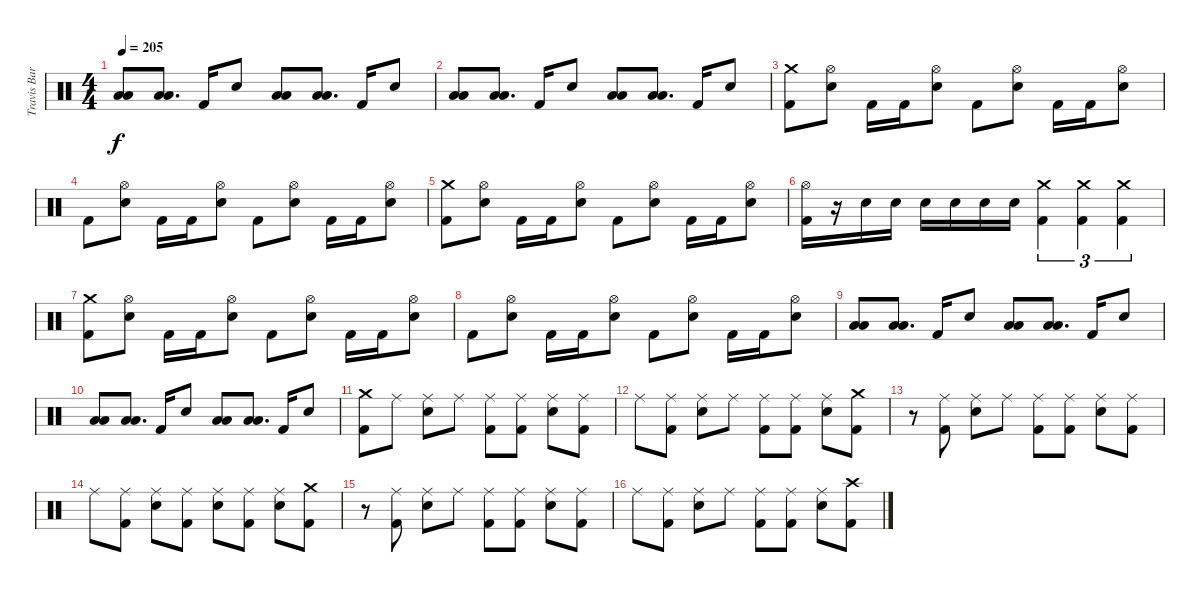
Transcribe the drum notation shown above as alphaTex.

\track ("Travis Barker (Drums)" "Travis Bar") {instrument percussion}
\staff {score}
\articulation defaults
\ts (4 4)
\tempo 205
\clef neutral
\ks c
("Low Tom (hit)" "Low Tom (hit)").8{dy f} ("Low Floor Tom (hit)" "Low Floor Tom (hit)").8{d} "Kick (hit) 2".16 "Electric Snare (hit)".8 ("Low Tom (hit)" "Low Tom (hit)").8 ("Low Floor Tom (hit)" "Low Floor Tom (hit)").8{d} "Kick (hit) 2".16 "Electric Snare (hit)".8 |
("Low Tom (hit)" "Low Tom (hit)").8 ("Low Floor Tom (hit)" "Low Floor Tom (hit)").8{d} "Kick (hit) 2".16 "Electric Snare (hit)".8 ("Low Tom (hit)" "Low Tom (hit)").8 ("Low Floor Tom (hit)" "Low Floor Tom (hit)").8{d} "Kick (hit) 2".16 "Electric Snare (hit)".8 |
("Crash medium (hit)" "Kick (hit) 2").8 ("Hi-Hat (open)" "Electric Snare (hit)").8 "Kick (hit) 2".16 "Kick (hit) 2".16 ("Hi-Hat (open)" "Electric Snare (hit)").8 "Kick (hit) 2".8 ("Hi-Hat (open)" "Electric Snare (hit)").8 "Kick (hit) 2".16 "Kick (hit) 2".16 ("Hi-Hat (open)" "Electric Snare (hit)").8 |
"Kick (hit) 2".8 ("Hi-Hat (open)" "Electric Snare (hit)").8 "Kick (hit) 2".16 "Kick (hit) 2".16 ("Hi-Hat (open)" "Electric Snare (hit)").8 "Kick (hit) 2".8 ("Hi-Hat (open)" "Electric Snare (hit)").8 "Kick (hit) 2".16 "Kick (hit) 2".16 ("Hi-Hat (open)" "Electric Snare (hit)").8 |
("Crash medium (hit)" "Kick (hit) 2").8 ("Hi-Hat (open)" "Electric Snare (hit)").8 "Kick (hit) 2".16 "Kick (hit) 2".16 ("Hi-Hat (open)" "Electric Snare (hit)").8 "Kick (hit) 2".8 ("Hi-Hat (open)" "Electric Snare (hit)").8 "Kick (hit) 2".16 "Kick (hit) 2".16 ("Hi-Hat (open)" "Electric Snare (hit)").8 |
("Hi-Hat (open)" "Kick (hit) 2").16 r.16 "Electric Snare (hit)".16 "Electric Snare (hit)".16 "Electric Snare (hit)".16 "Electric Snare (hit)".16 "Electric Snare (hit)".16 "Electric Snare (hit)".16 ("Crash medium (hit)" "Kick (hit) 2").4{tu (3 2)} ("Crash medium (hit)" "Kick (hit) 2").4{tu (3 2)} ("Crash medium (hit)" "Kick (hit) 2").4{tu (3 2)} |
("Crash medium (hit)" "Kick (hit) 2").8 ("Hi-Hat (open)" "Electric Snare (hit)").8 "Kick (hit) 2".16 "Kick (hit) 2".16 ("Hi-Hat (open)" "Electric Snare (hit)").8 "Kick (hit) 2".8 ("Hi-Hat (open)" "Electric Snare (hit)").8 "Kick (hit) 2".16 "Kick (hit) 2".16 ("Hi-Hat (open)" "Electric Snare (hit)").8 |
"Kick (hit) 2".8 ("Hi-Hat (open)" "Electric Snare (hit)").8 "Kick (hit) 2".16 "Kick (hit) 2".16 ("Hi-Hat (open)" "Electric Snare (hit)").8 "Kick (hit) 2".8 ("Hi-Hat (open)" "Electric Snare (hit)").8 "Kick (hit) 2".16 "Kick (hit) 2".16 ("Hi-Hat (open)" "Electric Snare (hit)").8 |
("Low Tom (hit)" "Low Tom (hit)").8 ("Low Floor Tom (hit)" "Low Floor Tom (hit)").8{d} "Kick (hit) 2".16 "Electric Snare (hit)".8 ("Low Tom (hit)" "Low Tom (hit)").8 ("Low Floor Tom (hit)" "Low Floor Tom (hit)").8{d} "Kick (hit) 2".16 "Electric Snare (hit)".8 |
("Low Tom (hit)" "Low Tom (hit)").8 ("Low Floor Tom (hit)" "Low Floor Tom (hit)").8{d} "Kick (hit) 2".16 "Electric Snare (hit)".8 ("Low Tom (hit)" "Low Tom (hit)").8 ("Low Floor Tom (hit)" "Low Floor Tom (hit)").8{d} "Kick (hit) 2".16 "Electric Snare (hit)".8 |
("Crash medium (hit)" "Kick (hit) 2").8 "Ride (middle)".8 ("Ride (middle)" "Electric Snare (hit)").8 "Ride (middle)".8 ("Ride (middle)" "Kick (hit) 2").8 ("Ride (middle)" "Kick (hit) 2").8 ("Ride (middle)" "Electric Snare (hit)").8 ("Ride (middle)" "Kick (hit) 2").8 |
"Ride (middle)".8 ("Ride (middle)" "Kick (hit) 2").8 ("Ride (middle)" "Electric Snare (hit)").8 "Ride (middle)".8 ("Ride (middle)" "Kick (hit) 2").8 ("Ride (middle)" "Kick (hit) 2").8 ("Ride (middle)" "Electric Snare (hit)").8 ("Crash medium (hit)" "Kick (hit) 2").8 |
r.8 ("Ride (middle)" "Kick (hit) 2").8 ("Ride (middle)" "Electric Snare (hit)").8 "Ride (middle)".8 ("Ride (middle)" "Kick (hit) 2").8 ("Ride (middle)" "Kick (hit) 2").8 ("Ride (middle)" "Electric Snare (hit)").8 ("Ride (middle)" "Kick (hit) 2").8 |
"Ride (middle)".8 ("Ride (middle)" "Kick (hit) 2").8 ("Ride (middle)" "Electric Snare (hit)").8 ("Ride (middle)" "Kick (hit) 2").8 ("Ride (middle)" "Electric Snare (hit)").8 ("Ride (middle)" "Kick (hit) 2").8 ("Ride (middle)" "Electric Snare (hit)").8 ("Crash medium (hit)" "Kick (hit) 2").8 |
r.8 ("Ride (middle)" "Kick (hit) 2").8 ("Ride (middle)" "Electric Snare (hit)").8 "Ride (middle)".8 ("Ride (middle)" "Kick (hit) 2").8 ("Ride (middle)" "Kick (hit) 2").8 ("Ride (middle)" "Electric Snare (hit)").8 ("Ride (middle)" "Kick (hit) 2").8 |
"Ride (middle)".8 ("Ride (middle)" "Kick (hit) 2").8 ("Ride (middle)" "Electric Snare (hit)").8 "Ride (middle)".8 ("Ride (middle)" "Kick (hit) 2").8 ("Ride (middle)" "Kick (hit) 2").8 ("Ride (middle)" "Electric Snare (hit)").8 ("Crash high (hit)" "Kick (hit) 2").8
